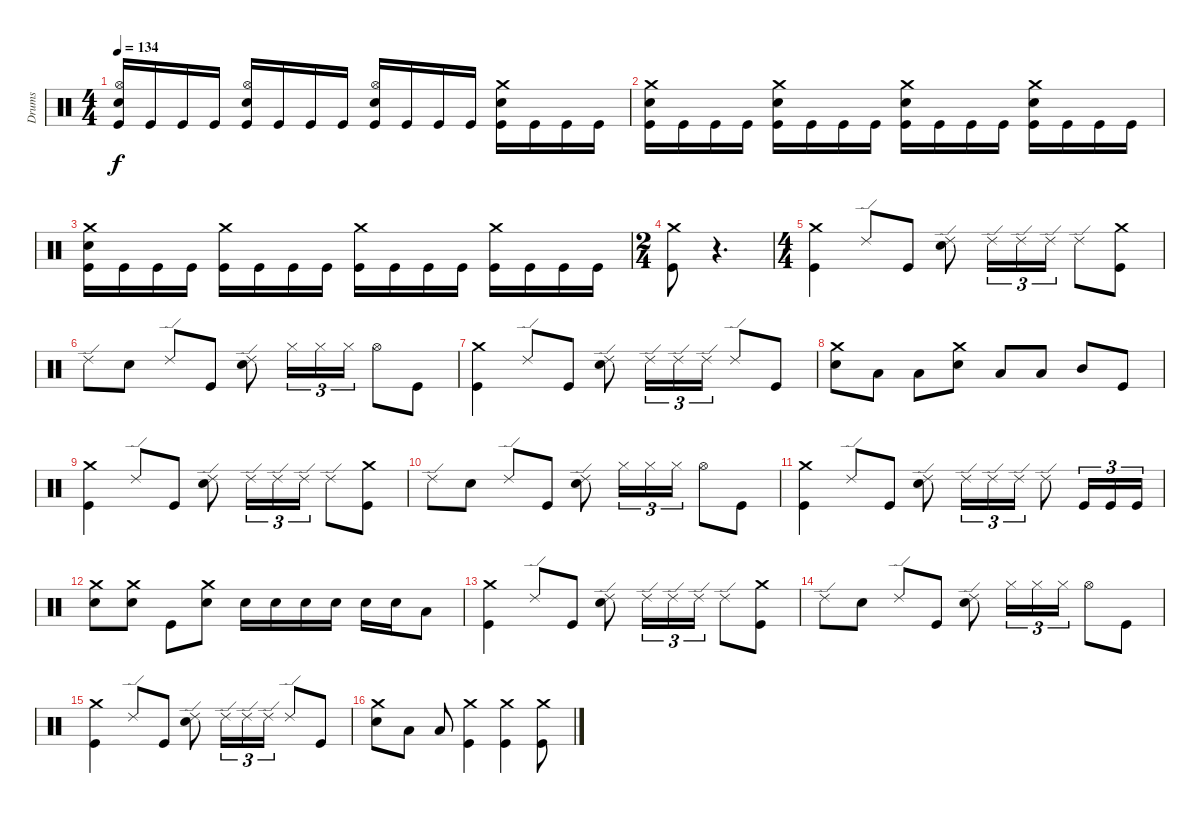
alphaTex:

\track ("Drums" "Drums") {instrument percussion}
\staff {score}
\articulation defaults
\ts (4 4)
\tempo 134
\clef neutral
\ks c
("Electric Snare (hit)" "Hi-Hat (open)" "Kick (hit)").16{dy f} "Kick (hit)".16 "Kick (hit)".16 "Kick (hit)".16 ("Electric Snare (hit)" "Hi-Hat (open)" "Kick (hit)").16 "Kick (hit)".16 "Kick (hit)".16 "Kick (hit)".16 ("Electric Snare (hit)" "Hi-Hat (open)" "Kick (hit)").16 "Kick (hit)".16 "Kick (hit)".16 "Kick (hit)".16 ("Electric Snare (hit)" "Crash medium (hit)" "Kick (hit)").16 "Kick (hit)".16 "Kick (hit)".16 "Kick (hit)".16 |
("Electric Snare (hit)" "Crash medium (hit)" "Kick (hit)").16 "Kick (hit)".16 "Kick (hit)".16 "Kick (hit)".16 ("Electric Snare (hit)" "Crash medium (hit)" "Kick (hit)").16 "Kick (hit)".16 "Kick (hit)".16 "Kick (hit)".16 ("Electric Snare (hit)" "Crash medium (hit)" "Kick (hit)").16 "Kick (hit)".16 "Kick (hit)".16 "Kick (hit)".16 ("Electric Snare (hit)" "Crash medium (hit)" "Kick (hit)").16 "Kick (hit)".16 "Kick (hit)".16 "Kick (hit)".16 |
("Electric Snare (hit)" "Crash medium (hit)" "Kick (hit)").16 "Kick (hit)".16 "Kick (hit)".16 "Kick (hit)".16 ("Crash medium (hit)" "Kick (hit)").16 "Kick (hit)".16 "Kick (hit)".16 "Kick (hit)".16 ("Crash medium (hit)" "Kick (hit)").16 "Kick (hit)".16 "Kick (hit)".16 "Kick (hit)".16 ("Crash medium (hit)" "Kick (hit)").16 "Kick (hit)".16 "Kick (hit)".16 "Kick (hit)".16 |
\ts (2 4)
("Crash medium (hit)" "Kick (hit)").8 r.4{d volume 0} |
\ts (4 4)
("Crash medium (hit)" "Kick (hit)").4{volume 16} "Ride (edge) 2".8 "Kick (hit)".8 ("Ride (edge) 2" "Electric Snare (hit)").8 "Ride (edge) 2".16{tu (3 2)} "Ride (edge) 2".16{tu (3 2)} "Ride (edge) 2".16{tu (3 2)} "Ride (edge) 2".8 ("Crash medium (hit)" "Kick (hit)").8 |
"Ride (edge) 2".8 "Electric Snare (hit)".8 "Ride (edge) 2".8 "Kick (hit)".8 ("Ride (edge) 2" "Electric Snare (hit)").8 "Hi-Hat (closed)".16{tu (3 2)} "Hi-Hat (closed)".16{tu (3 2)} "Hi-Hat (closed)".16{tu (3 2)} "Hi-Hat (open)".8 "Kick (hit)".8 |
("Crash medium (hit)" "Kick (hit)").4 "Ride (edge) 2".8 "Kick (hit)".8 ("Ride (edge) 2" "Electric Snare (hit)").8 "Ride (edge) 2".16{tu (3 2)} "Ride (edge) 2".16{tu (3 2)} "Ride (edge) 2".16{tu (3 2)} "Ride (edge) 2".8 "Kick (hit)".8 |
("Crash medium (hit)" "Electric Snare (hit)").8 "Low Floor Tom (hit)".8 "Low Tom (hit)".8 ("Crash medium (hit)" "Electric Snare (hit)").8 "Low Floor Tom (hit)".8 "Low Tom (hit)".8 "Mid Tom (hit)".8 "Kick (hit)".8 |
("Crash medium (hit)" "Kick (hit)").4 "Ride (edge) 2".8 "Kick (hit)".8 ("Ride (edge) 2" "Electric Snare (hit)").8 "Ride (edge) 2".16{tu (3 2)} "Ride (edge) 2".16{tu (3 2)} "Ride (edge) 2".16{tu (3 2)} "Ride (edge) 2".8 ("Crash medium (hit)" "Kick (hit)").8 |
"Ride (edge) 2".8 "Electric Snare (hit)".8 "Ride (edge) 2".8 "Kick (hit)".8 ("Ride (edge) 2" "Electric Snare (hit)").8 "Hi-Hat (closed)".16{tu (3 2)} "Hi-Hat (closed)".16{tu (3 2)} "Hi-Hat (closed)".16{tu (3 2)} "Hi-Hat (open)".8 "Kick (hit)".8 |
("Crash medium (hit)" "Kick (hit)").4 "Ride (edge) 2".8 "Kick (hit)".8 ("Ride (edge) 2" "Electric Snare (hit)").8 "Ride (edge) 2".16{tu (3 2)} "Ride (edge) 2".16{tu (3 2)} "Ride (edge) 2".16{tu (3 2)} "Ride (edge) 2".8 "Kick (hit)".16{tu (3 2)} "Kick (hit)".16{tu (3 2)} "Kick (hit)".16{tu (3 2)} |
("Crash medium (hit)" "Electric Snare (hit)").8 ("Crash medium (hit)" "Electric Snare (hit)").8 "Kick (hit)".8 ("Crash medium (hit)" "Electric Snare (hit)").8 "Electric Snare (hit)".16 "Electric Snare (hit)".16 "Electric Snare (hit)".16 "Electric Snare (hit)".16 "Electric Snare (hit)".16 "Electric Snare (hit)".16 "Low Tom (hit)".8 |
("Crash medium (hit)" "Kick (hit)").4 "Ride (edge) 2".8 "Kick (hit)".8 ("Ride (edge) 2" "Electric Snare (hit)").8 "Ride (edge) 2".16{tu (3 2)} "Ride (edge) 2".16{tu (3 2)} "Ride (edge) 2".16{tu (3 2)} "Ride (edge) 2".8 ("Crash medium (hit)" "Kick (hit)").8 |
"Ride (edge) 2".8 "Electric Snare (hit)".8 "Ride (edge) 2".8 "Kick (hit)".8 ("Ride (edge) 2" "Electric Snare (hit)").8 "Hi-Hat (closed)".16{tu (3 2)} "Hi-Hat (closed)".16{tu (3 2)} "Hi-Hat (closed)".16{tu (3 2)} "Hi-Hat (open)".8 "Kick (hit)".8 |
("Crash medium (hit)" "Kick (hit)").4 "Ride (edge) 2".8 "Kick (hit)".8 ("Ride (edge) 2" "Electric Snare (hit)").8 "Ride (edge) 2".16{tu (3 2)} "Ride (edge) 2".16{tu (3 2)} "Ride (edge) 2".16{tu (3 2)} "Ride (edge) 2".8 "Kick (hit)".8 |
("Crash medium (hit)" "Electric Snare (hit)").8 "Low Floor Tom (hit)".8 "Low Tom (hit)".8 ("Crash medium (hit)" "Kick (hit)").4 ("Crash medium (hit)" "Kick (hit)").4 ("Crash medium (hit)" "Kick (hit)").8
